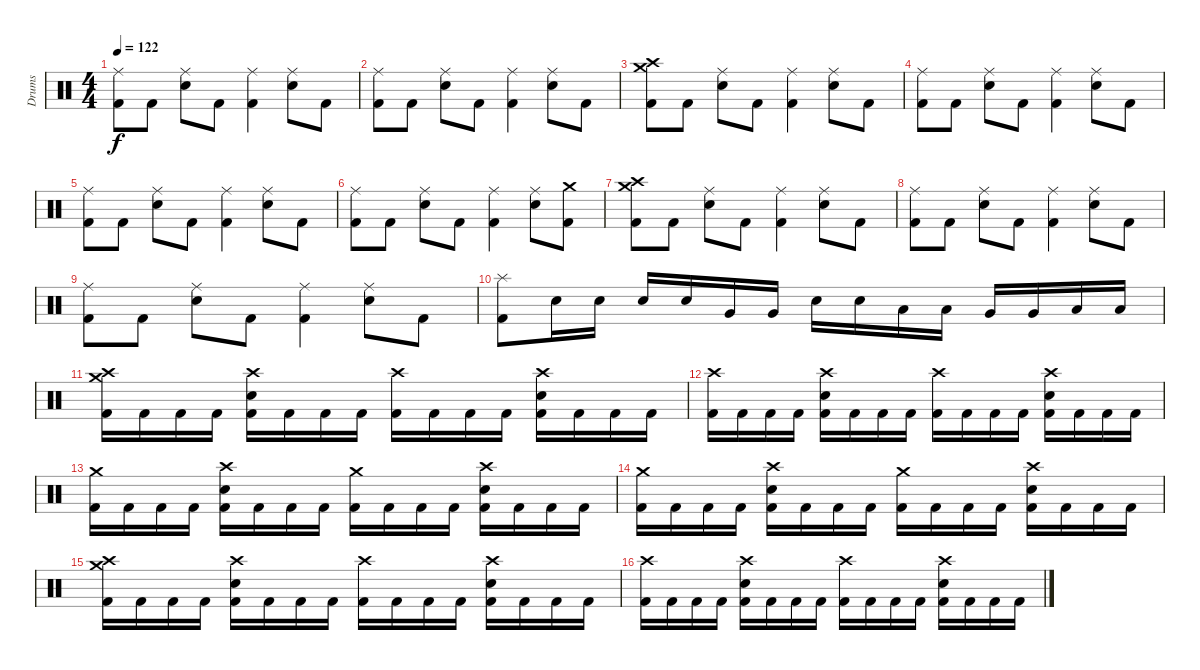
\track ("Drums" "Drums") {instrument percussion}
\staff {score}
\articulation defaults
\ts (4 4)
\tempo 122
\clef neutral
\ks c
("Ride (middle)" "Kick (hit) 2").8{dy f} "Kick (hit) 2".8 ("Ride (middle)" "Electric Snare (hit)").8 "Kick (hit) 2".8 ("Ride (middle)" "Kick (hit) 2").4 ("Ride (middle)" "Electric Snare (hit)").8 "Kick (hit) 2".8 |
("Ride (middle)" "Kick (hit) 2").8 "Kick (hit) 2".8 ("Ride (middle)" "Electric Snare (hit)").8 "Kick (hit) 2".8 ("Ride (middle)" "Kick (hit) 2").4 ("Ride (middle)" "Electric Snare (hit)").8 "Kick (hit) 2".8 |
("Crash medium (hit)" "Crash high (hit)" "Kick (hit) 2").8 "Kick (hit) 2".8 ("Ride (middle)" "Electric Snare (hit)").8 "Kick (hit) 2".8 ("Ride (middle)" "Kick (hit) 2").4 ("Ride (middle)" "Electric Snare (hit)").8 "Kick (hit) 2".8 |
("Ride (middle)" "Kick (hit) 2").8 "Kick (hit) 2".8 ("Ride (middle)" "Electric Snare (hit)").8 "Kick (hit) 2".8 ("Ride (middle)" "Kick (hit) 2").4 ("Ride (middle)" "Electric Snare (hit)").8 "Kick (hit) 2".8 |
("Ride (middle)" "Kick (hit) 2").8 "Kick (hit) 2".8 ("Ride (middle)" "Electric Snare (hit)").8 "Kick (hit) 2".8 ("Ride (middle)" "Kick (hit) 2").4 ("Ride (middle)" "Electric Snare (hit)").8 "Kick (hit) 2".8 |
("Ride (middle)" "Kick (hit) 2").8 "Kick (hit) 2".8 ("Ride (middle)" "Electric Snare (hit)").8 "Kick (hit) 2".8 ("Ride (middle)" "Kick (hit) 2").4 ("Ride (middle)" "Electric Snare (hit)").8 ("Crash medium (hit)" "Kick (hit) 2").8 |
("Crash medium (hit)" "Crash high (hit)" "Kick (hit) 2").8 "Kick (hit) 2".8 ("Ride (middle)" "Electric Snare (hit)").8 "Kick (hit) 2".8 ("Ride (middle)" "Kick (hit) 2").4 ("Ride (middle)" "Electric Snare (hit)").8 "Kick (hit) 2".8 |
("Ride (middle)" "Kick (hit) 2").8 "Kick (hit) 2".8 ("Ride (middle)" "Electric Snare (hit)").8 "Kick (hit) 2".8 ("Ride (middle)" "Kick (hit) 2").4 ("Ride (middle)" "Electric Snare (hit)").8 "Kick (hit) 2".8 |
("Ride (middle)" "Kick (hit) 2").8 "Kick (hit) 2".8 ("Ride (middle)" "Electric Snare (hit)").8 "Kick (hit) 2".8 ("Ride (middle)" "Kick (hit) 2").4 ("Ride (middle)" "Electric Snare (hit)").8 "Kick (hit) 2".8 |
("Splash (hit)" "Kick (hit) 2").8 "Electric Snare (hit)".16 "Electric Snare (hit)".16 "Electric Snare (hit)".16 "Electric Snare (hit)".16 "Very Low Tom (hit)".16 "Very Low Tom (hit)".16 "Electric Snare (hit)".16 "Electric Snare (hit)".16 "Low Tom (hit)".16 "Low Tom (hit)".16 "Very Low Tom (hit)".16 "Very Low Tom (hit)".16 "Low Floor Tom (hit)".16 "Low Floor Tom (hit)".16 |
("Crash medium (hit)" "Crash high (hit)" "Kick (hit) 2").16 "Kick (hit) 2".16 "Kick (hit) 2".16 "Kick (hit) 2".16 ("Crash high (hit)" "Electric Snare (hit)" "Kick (hit) 2").16 "Kick (hit) 2".16 "Kick (hit) 2".16 "Kick (hit) 2".16 ("Crash high (hit)" "Kick (hit) 2").16 "Kick (hit) 2".16 "Kick (hit) 2".16 "Kick (hit) 2".16 ("Crash high (hit)" "Electric Snare (hit)" "Kick (hit) 2").16 "Kick (hit) 2".16 "Kick (hit) 2".16 "Kick (hit) 2".16 |
("Crash high (hit)" "Kick (hit) 2").16 "Kick (hit) 2".16 "Kick (hit) 2".16 "Kick (hit) 2".16 ("Crash high (hit)" "Electric Snare (hit)" "Kick (hit) 2").16 "Kick (hit) 2".16 "Kick (hit) 2".16 "Kick (hit) 2".16 ("Crash high (hit)" "Kick (hit) 2").16 "Kick (hit) 2".16 "Kick (hit) 2".16 "Kick (hit) 2".16 ("Crash high (hit)" "Electric Snare (hit)" "Kick (hit) 2").16 "Kick (hit) 2".16 "Kick (hit) 2".16 "Kick (hit) 2".16 |
("Crash medium (hit)" "Kick (hit) 2").16 "Kick (hit) 2".16 "Kick (hit) 2".16 "Kick (hit) 2".16 ("Crash high (hit)" "Electric Snare (hit)" "Kick (hit) 2").16 "Kick (hit) 2".16 "Kick (hit) 2".16 "Kick (hit) 2".16 ("Crash medium (hit)" "Kick (hit) 2").16 "Kick (hit) 2".16 "Kick (hit) 2".16 "Kick (hit) 2".16 ("Crash high (hit)" "Electric Snare (hit)" "Kick (hit) 2").16 "Kick (hit) 2".16 "Kick (hit) 2".16 "Kick (hit) 2".16 |
("Crash medium (hit)" "Kick (hit) 2").16 "Kick (hit) 2".16 "Kick (hit) 2".16 "Kick (hit) 2".16 ("Crash high (hit)" "Electric Snare (hit)" "Kick (hit) 2").16 "Kick (hit) 2".16 "Kick (hit) 2".16 "Kick (hit) 2".16 ("Crash medium (hit)" "Kick (hit) 2").16 "Kick (hit) 2".16 "Kick (hit) 2".16 "Kick (hit) 2".16 ("Crash high (hit)" "Electric Snare (hit)" "Kick (hit) 2").16 "Kick (hit) 2".16 "Kick (hit) 2".16 "Kick (hit) 2".16 |
("Crash medium (hit)" "Crash high (hit)" "Kick (hit) 2").16 "Kick (hit) 2".16 "Kick (hit) 2".16 "Kick (hit) 2".16 ("Crash high (hit)" "Electric Snare (hit)" "Kick (hit) 2").16 "Kick (hit) 2".16 "Kick (hit) 2".16 "Kick (hit) 2".16 ("Crash high (hit)" "Kick (hit) 2").16 "Kick (hit) 2".16 "Kick (hit) 2".16 "Kick (hit) 2".16 ("Crash high (hit)" "Electric Snare (hit)" "Kick (hit) 2").16 "Kick (hit) 2".16 "Kick (hit) 2".16 "Kick (hit) 2".16 |
("Crash high (hit)" "Kick (hit) 2").16 "Kick (hit) 2".16 "Kick (hit) 2".16 "Kick (hit) 2".16 ("Crash high (hit)" "Electric Snare (hit)" "Kick (hit) 2").16 "Kick (hit) 2".16 "Kick (hit) 2".16 "Kick (hit) 2".16 ("Crash high (hit)" "Kick (hit) 2").16 "Kick (hit) 2".16 "Kick (hit) 2".16 "Kick (hit) 2".16 ("Crash high (hit)" "Electric Snare (hit)" "Kick (hit) 2").16 "Kick (hit) 2".16 "Kick (hit) 2".16 "Kick (hit) 2".16
